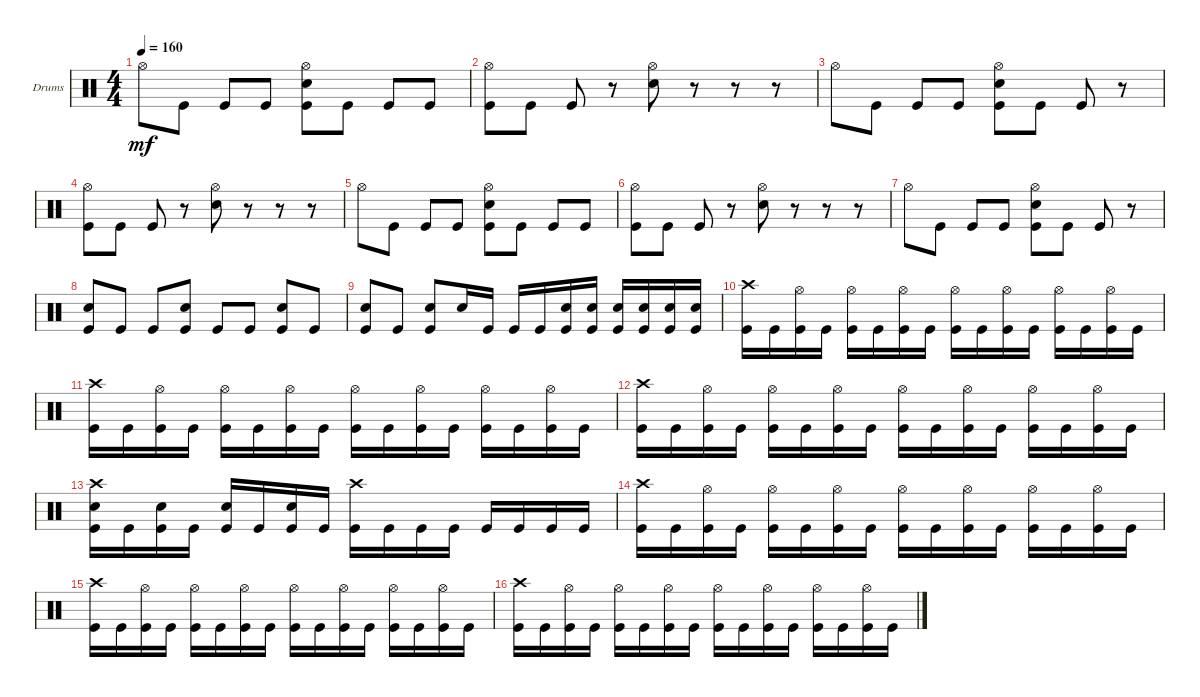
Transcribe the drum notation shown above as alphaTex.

\bracketExtendMode groupsimilarinstruments
\firstSystemTrackNameOrientation horizontal
\otherSystemsTrackNameOrientation horizontal
\track ("Drums" "Drums") {instrument percussion}
\staff {score}
\articulation defaults
\ts (4 4)
\tempo 160
\clef neutral
\scale
0.333333
\ks c "Hi-Hat (open)".8{dy mf} "Kick (hit)".8 "Kick (hit)".8 "Kick (hit)".8
("Kick (hit)" "Snare (hit) 2" "Hi-Hat (open)").8 "Kick (hit)".8 "Kick (hit)".8 "Kick (hit)".8 |
\scale
0.333333 ("Kick (hit)" "Hi-Hat (open)").8 "Kick (hit)".8 "Kick (hit)".8 r.8 ("Hi-Hat (open)" "Snare (hit) 2").8 r.8 r.8 r.8 |
\scale
0.333333 "Hi-Hat (open)".8 "Kick (hit)".8 "Kick (hit)".8 "Kick (hit)".8 ("Kick (hit)" "Snare (hit) 2" "Hi-Hat (open)").8 "Kick (hit)".8 "Kick (hit)".8 r.8 |
\scale
0.333333 ("Kick (hit)" "Hi-Hat (open)").8 "Kick (hit)".8 "Kick (hit)".8 r.8 ("Snare (hit) 2" "Hi-Hat (open)").8 r.8 r.8 r.8 |
\scale
0.333333 "Hi-Hat (open)".8 "Kick (hit)".8 "Kick (hit)".8 "Kick (hit)".8 ("Kick (hit)" "Snare (hit) 2" "Hi-Hat (open)").8 "Kick (hit)".8 "Kick (hit)".8 "Kick (hit)".8 |
\scale
0.333333 ("Kick (hit)" "Hi-Hat (open)").8 "Kick (hit)".8 "Kick (hit)".8 r.8 ("Hi-Hat (open)" "Snare (hit) 2").8 r.8 r.8 r.8 |
\scale
0.333333 "Hi-Hat (open)".8 "Kick (hit)".8 "Kick (hit)".8 "Kick (hit)".8 ("Kick (hit)" "Snare (hit) 2" "Hi-Hat (open)").8 "Kick (hit)".8 "Kick (hit)".8 r.8 |
\scale
0.333333 ("Snare (hit) 2" "Kick (hit)").8 "Kick (hit)".8 "Kick (hit)".8 ("Snare (hit) 2" "Kick (hit)").8 "Kick (hit)".8 "Kick (hit)".8 ("Snare (hit) 2" "Kick (hit)").8 "Kick (hit)".8 |
\scale
0.333333 ("Kick (hit)" "Snare (hit) 2").8 "Kick (hit)".8 ("Kick (hit)" "Snare (hit) 2").8 "Snare (hit) 2".16 "Kick (hit)".16 "Kick (hit)".16 "Kick (hit)".16 ("Kick (hit)" "Snare (hit) 2").16 ("Kick (hit)" "Snare (hit) 2").16 ("Kick (hit)" "Snare (hit) 2").16 ("Kick (hit)" "Snare (hit) 2").16 ("Kick (hit)" "Snare (hit) 2").16 ("Kick (hit)" "Snare (hit) 2").16 |
\scale
0.333333 ("Kick (hit)" "Crash high (hit)").16 "Kick (hit)".16 ("Kick (hit)" "Hi-Hat (open)").16 "Kick (hit)".16 ("Kick (hit)" "Hi-Hat (open)").16 "Kick (hit)".16 ("Kick (hit)" "Hi-Hat (open)").16 "Kick (hit)".16 ("Kick (hit)" "Hi-Hat (open)").16 "Kick (hit)".16 ("Kick (hit)" "Hi-Hat (open)").16 "Kick (hit)".16 ("Kick (hit)" "Hi-Hat (open)").16 "Kick (hit)".16 ("Kick (hit)" "Hi-Hat (open)").16 "Kick (hit)".16 |
\scale
0.333333 ("Kick (hit)" "Crash high (hit)").16 "Kick (hit)".16 ("Kick (hit)" "Hi-Hat (open)").16 "Kick (hit)".16 ("Kick (hit)" "Hi-Hat (open)").16 "Kick (hit)".16 ("Kick (hit)" "Hi-Hat (open)").16 "Kick (hit)".16 ("Kick (hit)" "Hi-Hat (open)").16 "Kick (hit)".16 ("Kick (hit)" "Hi-Hat (open)").16 "Kick (hit)".16 ("Kick (hit)" "Hi-Hat (open)").16 "Kick (hit)".16 ("Kick (hit)" "Hi-Hat (open)").16 "Kick (hit)".16 |
\scale
0.333333 ("Kick (hit)" "Crash high (hit)").16 "Kick (hit)".16 ("Kick (hit)" "Hi-Hat (open)").16 "Kick (hit)".16 ("Kick (hit)" "Hi-Hat (open)").16 "Kick (hit)".16 ("Kick (hit)" "Hi-Hat (open)").16 "Kick (hit)".16 ("Kick (hit)" "Hi-Hat (open)").16 "Kick (hit)".16 ("Kick (hit)" "Hi-Hat (open)").16 "Kick (hit)".16 ("Kick (hit)" "Hi-Hat (open)").16 "Kick (hit)".16 ("Kick (hit)" "Hi-Hat (open)").16 "Kick (hit)".16 |
\scale
0.333333 ("Kick (hit)" "Snare (hit) 2" "Crash high (hit)").16 "Kick (hit)".16 ("Kick (hit)" "Snare (hit) 2").16 "Kick (hit)".16 ("Kick (hit)" "Snare (hit) 2").16 "Kick (hit)".16 ("Kick (hit)" "Snare (hit) 2").16 "Kick (hit)".16 ("Kick (hit)" "Crash high (hit)").16 "Kick (hit)".16 "Kick (hit)".16 "Kick (hit)".16 "Kick (hit)".16 "Kick (hit)".16 "Kick (hit)".16 "Kick (hit)".16 |
\scale
0.333333 ("Kick (hit)" "Crash high (hit)").16 "Kick (hit)".16 ("Kick (hit)" "Hi-Hat (open)").16 "Kick (hit)".16 ("Kick (hit)" "Hi-Hat (open)").16 "Kick (hit)".16 ("Kick (hit)" "Hi-Hat (open)").16 "Kick (hit)".16 ("Kick (hit)" "Hi-Hat (open)").16 "Kick (hit)".16 ("Kick (hit)" "Hi-Hat (open)").16 "Kick (hit)".16 ("Kick (hit)" "Hi-Hat (open)").16 "Kick (hit)".16 ("Kick (hit)" "Hi-Hat (open)").16 "Kick (hit)".16 |
\scale
0.333333 ("Kick (hit)" "Crash high (hit)").16 "Kick (hit)".16 ("Kick (hit)" "Hi-Hat (open)").16 "Kick (hit)".16 ("Kick (hit)" "Hi-Hat (open)").16 "Kick (hit)".16 ("Kick (hit)" "Hi-Hat (open)").16 "Kick (hit)".16 ("Kick (hit)" "Hi-Hat (open)").16 "Kick (hit)".16 ("Kick (hit)" "Hi-Hat (open)").16 "Kick (hit)".16 ("Kick (hit)" "Hi-Hat (open)").16 "Kick (hit)".16 ("Kick (hit)" "Hi-Hat (open)").16 "Kick (hit)".16 |
\scale
0.333333 ("Kick (hit)" "Crash high (hit)").16 "Kick (hit)".16 ("Kick (hit)" "Hi-Hat (open)").16 "Kick (hit)".16 ("Kick (hit)" "Hi-Hat (open)").16 "Kick (hit)".16 ("Kick (hit)" "Hi-Hat (open)").16 "Kick (hit)".16 ("Kick (hit)" "Hi-Hat (open)").16 "Kick (hit)".16 ("Kick (hit)" "Hi-Hat (open)").16 "Kick (hit)".16 ("Kick (hit)" "Hi-Hat (open)").16 "Kick (hit)".16 ("Kick (hit)" "Hi-Hat (open)").16 "Kick (hit)".16
